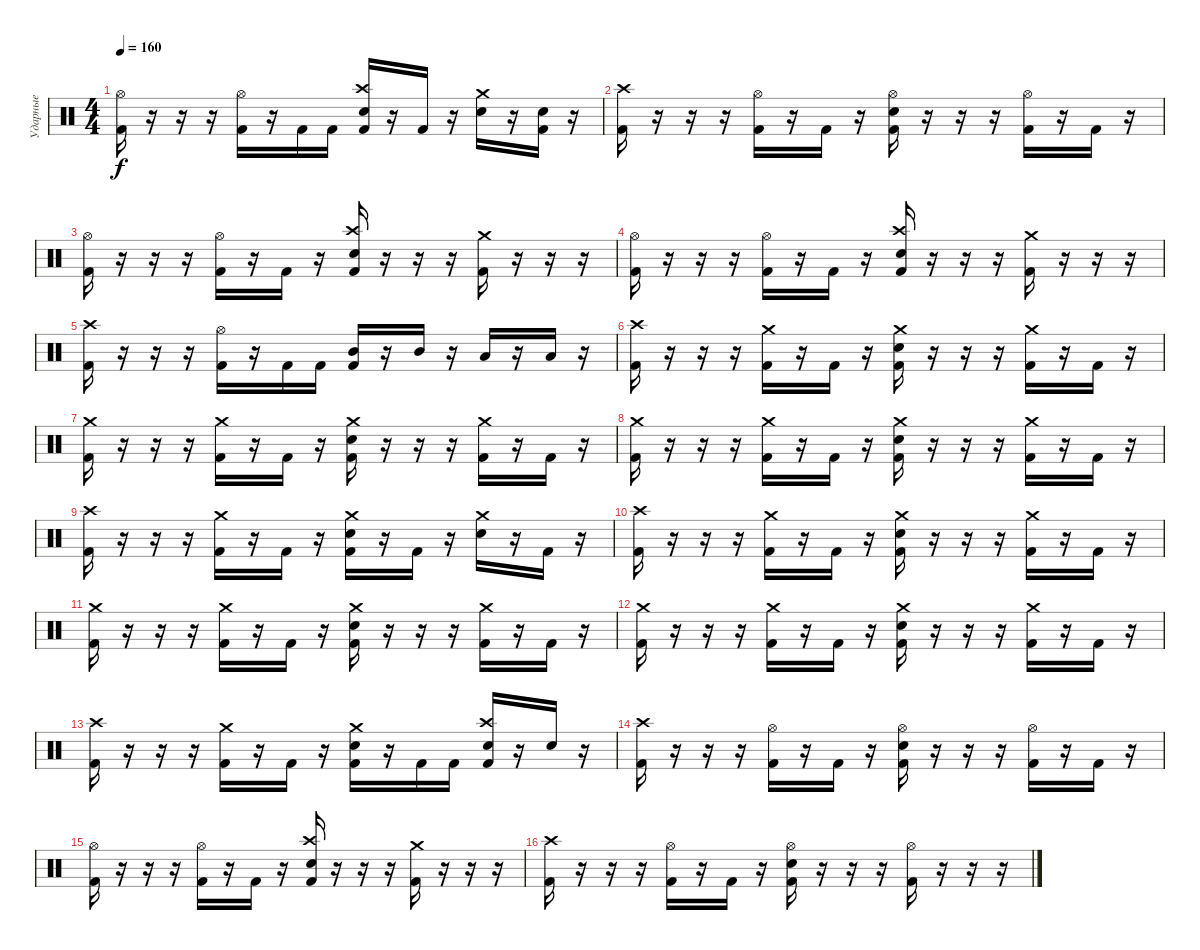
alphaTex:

\track ("Ударные" "Ударные") {instrument percussion}
\staff {score}
\articulation defaults
\ts (4 4)
\tempo 160
\clef neutral
\ks c
("Hi-Hat (open)" "Kick (hit) 2").16{dy f} r.16 r.16 r.16 ("Hi-Hat (open)" "Kick (hit) 2").16 r.16 "Kick (hit) 2".16 "Kick (hit) 2".16 ("Crash high (hit)" "Electric Snare (hit)" "Kick (hit) 2").16 r.16 "Kick (hit) 2".16 r.16 ("Crash medium (hit)" "Electric Snare (hit)").16 r.16 ("Electric Snare (hit)" "Kick (hit) 2").16 r.16 |
("Crash high (hit)" "Kick (hit) 2").16 r.16 r.16 r.16 ("Hi-Hat (open)" "Kick (hit) 2").16 r.16 "Kick (hit) 2".16 r.16 ("Hi-Hat (open)" "Electric Snare (hit)" "Kick (hit) 2").16 r.16 r.16 r.16 ("Hi-Hat (open)" "Kick (hit) 2").16 r.16 "Kick (hit) 2".16 r.16 |
("Hi-Hat (open)" "Kick (hit) 2").16 r.16 r.16 r.16 ("Hi-Hat (open)" "Kick (hit) 2").16 r.16 "Kick (hit) 2".16 r.16 ("Crash high (hit)" "Electric Snare (hit)" "Kick (hit) 2").16 r.16 r.16 r.16 ("Crash medium (hit)" "Kick (hit) 2").16 r.16 r.16 r.16 |
("Hi-Hat (open)" "Kick (hit) 2").16 r.16 r.16 r.16 ("Hi-Hat (open)" "Kick (hit) 2").16 r.16 "Kick (hit) 2".16 r.16 ("Crash high (hit)" "Electric Snare (hit)" "Kick (hit) 2").16 r.16 r.16 r.16 ("Crash medium (hit)" "Kick (hit) 2").16 r.16 r.16 r.16 |
("Crash high (hit)" "Kick (hit) 2").16 r.16 r.16 r.16 ("Hi-Hat (open)" "Kick (hit) 2").16 r.16 "Kick (hit) 2".16 "Kick (hit) 2".16 ("Mid Tom (hit)" "Kick (hit) 2").16 r.16 "Mid Tom (hit)".16 r.16 "Low Tom (hit)".16 r.16 "Low Tom (hit)".16 r.16 |
("Crash high (hit)" "Kick (hit) 2").16 r.16 r.16 r.16 ("Crash medium (hit)" "Kick (hit) 2").16 r.16 "Kick (hit) 2".16 r.16 ("Crash medium (hit)" "Electric Snare (hit)" "Kick (hit) 2").16 r.16 r.16 r.16 ("Crash medium (hit)" "Kick (hit) 2").16 r.16 "Kick (hit) 2".16 r.16 |
("Crash medium (hit)" "Kick (hit) 2").16 r.16 r.16 r.16 ("Crash medium (hit)" "Kick (hit) 2").16 r.16 "Kick (hit) 2".16 r.16 ("Crash medium (hit)" "Electric Snare (hit)" "Kick (hit) 2").16 r.16 r.16 r.16 ("Crash medium (hit)" "Kick (hit) 2").16 r.16 "Kick (hit) 2".16 r.16 |
("Crash medium (hit)" "Kick (hit) 2").16 r.16 r.16 r.16 ("Crash medium (hit)" "Kick (hit) 2").16 r.16 "Kick (hit) 2".16 r.16 ("Crash medium (hit)" "Electric Snare (hit)" "Kick (hit) 2").16 r.16 r.16 r.16 ("Crash medium (hit)" "Kick (hit) 2").16 r.16 "Kick (hit) 2".16 r.16 |
("Crash high (hit)" "Kick (hit) 2").16 r.16 r.16 r.16 ("Crash medium (hit)" "Kick (hit) 2").16 r.16 "Kick (hit) 2".16 r.16 ("Crash medium (hit)" "Electric Snare (hit)" "Kick (hit) 2").16 r.16 "Kick (hit) 2".16 r.16 ("Crash medium (hit)" "Electric Snare (hit)").16 r.16 "Kick (hit) 2".16 r.16 |
("Crash high (hit)" "Kick (hit) 2").16 r.16 r.16 r.16 ("Crash medium (hit)" "Kick (hit) 2").16 r.16 "Kick (hit) 2".16 r.16 ("Crash medium (hit)" "Electric Snare (hit)" "Kick (hit) 2").16 r.16 r.16 r.16 ("Crash medium (hit)" "Kick (hit) 2").16 r.16 "Kick (hit) 2".16 r.16 |
("Crash medium (hit)" "Kick (hit) 2").16 r.16 r.16 r.16 ("Crash medium (hit)" "Kick (hit) 2").16 r.16 "Kick (hit) 2".16 r.16 ("Crash medium (hit)" "Electric Snare (hit)" "Kick (hit) 2").16 r.16 r.16 r.16 ("Crash medium (hit)" "Kick (hit) 2").16 r.16 "Kick (hit) 2".16 r.16 |
("Crash medium (hit)" "Kick (hit) 2").16 r.16 r.16 r.16 ("Crash medium (hit)" "Kick (hit) 2").16 r.16 "Kick (hit) 2".16 r.16 ("Crash medium (hit)" "Electric Snare (hit)" "Kick (hit) 2").16 r.16 r.16 r.16 ("Crash medium (hit)" "Kick (hit) 2").16 r.16 "Kick (hit) 2".16 r.16 |
("Crash high (hit)" "Kick (hit) 2").16 r.16 r.16 r.16 ("Crash medium (hit)" "Kick (hit) 2").16 r.16 "Kick (hit) 2".16 r.16 ("Crash medium (hit)" "Electric Snare (hit)" "Kick (hit) 2").16 r.16 "Kick (hit) 2".16 "Kick (hit) 2".16 ("Crash high (hit)" "Electric Snare (hit)" "Kick (hit) 2").16 r.16 "Electric Snare (hit)".16 r.16 |
("Crash high (hit)" "Kick (hit) 2").16 r.16 r.16 r.16 ("Hi-Hat (open)" "Kick (hit) 2").16 r.16 "Kick (hit) 2".16 r.16 ("Hi-Hat (open)" "Electric Snare (hit)" "Kick (hit) 2").16 r.16 r.16 r.16 ("Hi-Hat (open)" "Kick (hit) 2").16 r.16 "Kick (hit) 2".16 r.16 |
("Hi-Hat (open)" "Kick (hit) 2").16 r.16 r.16 r.16 ("Hi-Hat (open)" "Kick (hit) 2").16 r.16 "Kick (hit) 2".16 r.16 ("Crash high (hit)" "Electric Snare (hit)" "Kick (hit) 2").16 r.16 r.16 r.16 ("Crash medium (hit)" "Kick (hit) 2").16 r.16 r.16 r.16 |
("Crash high (hit)" "Kick (hit) 2").16 r.16 r.16 r.16 ("Hi-Hat (open)" "Kick (hit) 2").16 r.16 "Kick (hit) 2".16 r.16 ("Hi-Hat (open)" "Electric Snare (hit)" "Kick (hit) 2").16 r.16 r.16 r.16 ("Hi-Hat (open)" "Kick (hit) 2").16 r.16 r.16 r.16
